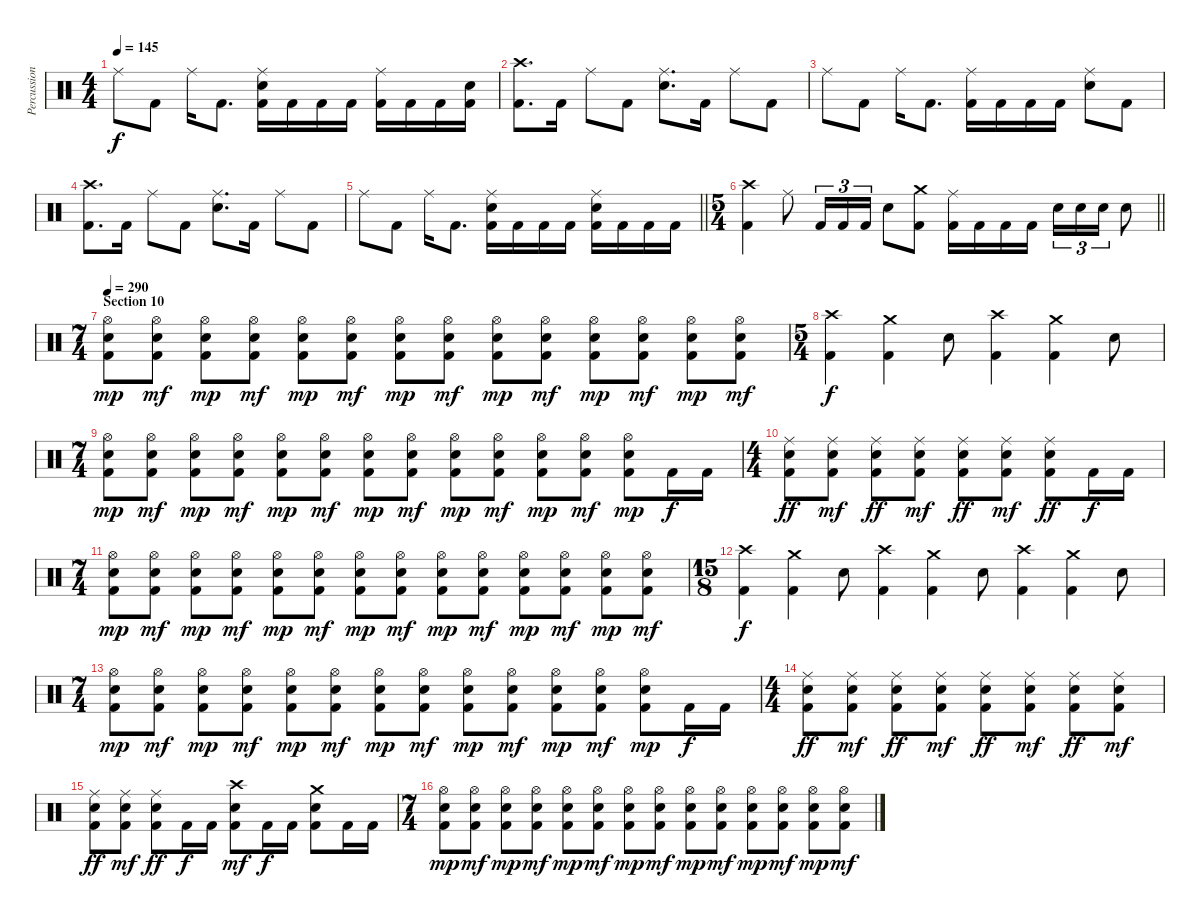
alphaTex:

\track ("Percussion" "Percussion") {instrument percussion}
\staff {score}
\articulation defaults
\ts (4 4)
\tempo 145
\clef neutral
\ks c "Ride (middle)".8{dy f} "Kick (hit) 2".8 "Ride (middle)".16 "Kick (hit) 2".8{d}
("Ride (middle)" "Electric Snare (hit)" "Kick (hit) 2").16 "Kick (hit) 2".16 "Kick (hit) 2".16 "Kick (hit) 2".16 ("Ride (middle)" "Kick (hit) 2").16 "Kick (hit) 2".16 "Kick (hit) 2".16 ("Electric Snare (hit)" "Kick (hit) 2").16 |
("Crash high (hit)" "Kick (hit) 2").8{d} "Kick (hit) 2".16 "Ride (middle)".8 "Kick (hit) 2".8 ("Ride (middle)" "Electric Snare (hit)").8{d} "Kick (hit) 2".16 "Ride (middle)".8 "Kick (hit) 2".8 |
"Ride (middle)".8 "Kick (hit) 2".8 "Ride (middle)".16 "Kick (hit) 2".8{d} ("Ride (middle)" "Kick (hit) 2").16 "Kick (hit) 2".16 "Kick (hit) 2".16 "Kick (hit) 2".16 ("Ride (middle)" "Electric Snare (hit)").8 "Kick (hit) 2".8 |
("Crash high (hit)" "Kick (hit) 2").8{d} "Kick (hit) 2".16 "Ride (middle)".8 "Kick (hit) 2".8 ("Ride (middle)" "Electric Snare (hit)").8{d} "Kick (hit) 2".16 "Ride (middle)".8 "Kick (hit) 2".8 |
\barLineRight lightlight "Ride (middle)".8 "Kick (hit) 2".8 "Ride (middle)".16 "Kick (hit) 2".8{d}
("Ride (middle)" "Electric Snare (hit)" "Kick (hit) 2").16 "Kick (hit) 2".16 "Kick (hit) 2".16 "Kick (hit) 2".16 ("Ride (middle)" "Electric Snare (hit)" "Kick (hit) 2").16 "Kick (hit) 2".16 "Kick (hit) 2".16 "Kick (hit) 2".16 |
\ts (5 4)
\section ("" "")
\barLineRight lightlight
("Crash high (hit)" "Kick (hit) 2").4 "Ride (middle)".8 "Kick (hit) 2".16{tu (3 2)} "Kick (hit) 2".16{tu (3 2)} "Kick (hit) 2".16{tu (3 2)} "Electric Snare (hit)".8 ("Crash medium (hit)" "Kick (hit) 2").8 ("Ride (middle)" "Kick (hit) 2").16 "Kick (hit) 2".16 "Kick (hit) 2".16 "Kick (hit) 2".16 "Electric Snare (hit)".16{tu (3 2)} "Electric Snare (hit)".16{tu (3 2)} "Electric Snare (hit)".16{tu (3 2)} "Electric Snare (hit)".8 |
\ts (7 4)
\section ("" "Section 10")
\tempo 290
("Hi-Hat (open)" "Electric Snare (hit)" "Kick (hit) 2").8{dy mp} ("Hi-Hat (open)" "Electric Snare (hit)" "Kick (hit) 2").8{dy mf} ("Hi-Hat (open)" "Electric Snare (hit)" "Kick (hit) 2").8{dy mp} ("Hi-Hat (open)" "Electric Snare (hit)" "Kick (hit) 2").8{dy mf} ("Hi-Hat (open)" "Electric Snare (hit)" "Kick (hit) 2").8{dy mp} ("Hi-Hat (open)" "Electric Snare (hit)" "Kick (hit) 2").8{dy mf} ("Hi-Hat (open)" "Electric Snare (hit)" "Kick (hit) 2").8{dy mp} ("Hi-Hat (open)" "Electric Snare (hit)" "Kick (hit) 2").8{dy mf} ("Hi-Hat (open)" "Electric Snare (hit)" "Kick (hit) 2").8{dy mp} ("Hi-Hat (open)" "Electric Snare (hit)" "Kick (hit) 2").8{dy mf} ("Hi-Hat (open)" "Electric Snare (hit)" "Kick (hit) 2").8{dy mp} ("Hi-Hat (open)" "Electric Snare (hit)" "Kick (hit) 2").8{dy mf} ("Hi-Hat (open)" "Electric Snare (hit)" "Kick (hit) 2").8{dy mp} ("Hi-Hat (open)" "Electric Snare (hit)" "Kick (hit) 2").8{dy mf} |
\ts (5 4)
("Crash high (hit)" "Kick (hit) 2").4{dy f} ("Crash medium (hit)" "Kick (hit) 2").4 "Electric Snare (hit)".8 ("Crash high (hit)" "Kick (hit) 2").4 ("Crash medium (hit)" "Kick (hit) 2").4 "Electric Snare (hit)".8 |
\ts (7 4)
("Hi-Hat (open)" "Electric Snare (hit)" "Kick (hit) 2").8{dy mp} ("Hi-Hat (open)" "Electric Snare (hit)" "Kick (hit) 2").8{dy mf} ("Hi-Hat (open)" "Electric Snare (hit)" "Kick (hit) 2").8{dy mp} ("Hi-Hat (open)" "Electric Snare (hit)" "Kick (hit) 2").8{dy mf} ("Hi-Hat (open)" "Electric Snare (hit)" "Kick (hit) 2").8{dy mp} ("Hi-Hat (open)" "Electric Snare (hit)" "Kick (hit) 2").8{dy mf} ("Hi-Hat (open)" "Electric Snare (hit)" "Kick (hit) 2").8{dy mp} ("Hi-Hat (open)" "Electric Snare (hit)" "Kick (hit) 2").8{dy mf} ("Hi-Hat (open)" "Electric Snare (hit)" "Kick (hit) 2").8{dy mp} ("Hi-Hat (open)" "Electric Snare (hit)" "Kick (hit) 2").8{dy mf} ("Hi-Hat (open)" "Electric Snare (hit)" "Kick (hit) 2").8{dy mp} ("Hi-Hat (open)" "Electric Snare (hit)" "Kick (hit) 2").8{dy mf} ("Hi-Hat (open)" "Electric Snare (hit)" "Kick (hit) 2").8{dy mp} "Kick (hit) 2".16{dy f} "Kick (hit) 2".16 |
\ts (4 4)
("Ride (middle)" "Electric Snare (hit)" "Kick (hit) 2").8{dy ff} ("Ride (middle)" "Electric Snare (hit)" "Kick (hit) 2").8{dy mf} ("Ride (middle)" "Electric Snare (hit)" "Kick (hit) 2").8{dy ff} ("Ride (middle)" "Electric Snare (hit)" "Kick (hit) 2").8{dy mf} ("Ride (middle)" "Electric Snare (hit)" "Kick (hit) 2").8{dy ff} ("Ride (middle)" "Electric Snare (hit)" "Kick (hit) 2").8{dy mf} ("Ride (middle)" "Electric Snare (hit)" "Kick (hit) 2").8{dy ff} "Kick (hit) 2".16{dy f} "Kick (hit) 2".16 |
\ts (7 4)
("Hi-Hat (open)" "Electric Snare (hit)" "Kick (hit) 2").8{dy mp} ("Hi-Hat (open)" "Electric Snare (hit)" "Kick (hit) 2").8{dy mf} ("Hi-Hat (open)" "Electric Snare (hit)" "Kick (hit) 2").8{dy mp} ("Hi-Hat (open)" "Electric Snare (hit)" "Kick (hit) 2").8{dy mf} ("Hi-Hat (open)" "Electric Snare (hit)" "Kick (hit) 2").8{dy mp} ("Hi-Hat (open)" "Electric Snare (hit)" "Kick (hit) 2").8{dy mf} ("Hi-Hat (open)" "Electric Snare (hit)" "Kick (hit) 2").8{dy mp} ("Hi-Hat (open)" "Electric Snare (hit)" "Kick (hit) 2").8{dy mf} ("Hi-Hat (open)" "Electric Snare (hit)" "Kick (hit) 2").8{dy mp} ("Hi-Hat (open)" "Electric Snare (hit)" "Kick (hit) 2").8{dy mf} ("Hi-Hat (open)" "Electric Snare (hit)" "Kick (hit) 2").8{dy mp} ("Hi-Hat (open)" "Electric Snare (hit)" "Kick (hit) 2").8{dy mf} ("Hi-Hat (open)" "Electric Snare (hit)" "Kick (hit) 2").8{dy mp} ("Hi-Hat (open)" "Electric Snare (hit)" "Kick (hit) 2").8{dy mf} |
\ts (15 8)
("Crash high (hit)" "Kick (hit) 2").4{dy f} ("Crash medium (hit)" "Kick (hit) 2").4 "Electric Snare (hit)".8 ("Crash high (hit)" "Kick (hit) 2").4 ("Crash medium (hit)" "Kick (hit) 2").4 "Electric Snare (hit)".8 ("Crash high (hit)" "Kick (hit) 2").4 ("Crash medium (hit)" "Kick (hit) 2").4 "Electric Snare (hit)".8 |
\ts (7 4)
("Hi-Hat (open)" "Electric Snare (hit)" "Kick (hit) 2").8{dy mp} ("Hi-Hat (open)" "Electric Snare (hit)" "Kick (hit) 2").8{dy mf} ("Hi-Hat (open)" "Electric Snare (hit)" "Kick (hit) 2").8{dy mp} ("Hi-Hat (open)" "Electric Snare (hit)" "Kick (hit) 2").8{dy mf} ("Hi-Hat (open)" "Electric Snare (hit)" "Kick (hit) 2").8{dy mp} ("Hi-Hat (open)" "Electric Snare (hit)" "Kick (hit) 2").8{dy mf} ("Hi-Hat (open)" "Electric Snare (hit)" "Kick (hit) 2").8{dy mp} ("Hi-Hat (open)" "Electric Snare (hit)" "Kick (hit) 2").8{dy mf} ("Hi-Hat (open)" "Electric Snare (hit)" "Kick (hit) 2").8{dy mp} ("Hi-Hat (open)" "Electric Snare (hit)" "Kick (hit) 2").8{dy mf} ("Hi-Hat (open)" "Electric Snare (hit)" "Kick (hit) 2").8{dy mp} ("Hi-Hat (open)" "Electric Snare (hit)" "Kick (hit) 2").8{dy mf} ("Hi-Hat (open)" "Electric Snare (hit)" "Kick (hit) 2").8{dy mp} "Kick (hit) 2".16{dy f} "Kick (hit) 2".16 |
\ts (4 4)
("Ride (middle)" "Electric Snare (hit)" "Kick (hit) 2").8{dy ff} ("Ride (middle)" "Electric Snare (hit)" "Kick (hit) 2").8{dy mf} ("Ride (middle)" "Electric Snare (hit)" "Kick (hit) 2").8{dy ff} ("Ride (middle)" "Electric Snare (hit)" "Kick (hit) 2").8{dy mf} ("Ride (middle)" "Electric Snare (hit)" "Kick (hit) 2").8{dy ff} ("Ride (middle)" "Electric Snare (hit)" "Kick (hit) 2").8{dy mf} ("Ride (middle)" "Electric Snare (hit)" "Kick (hit) 2").8{dy ff} ("Ride (middle)" "Electric Snare (hit)" "Kick (hit) 2").8{dy mf} |
("Ride (middle)" "Electric Snare (hit)" "Kick (hit) 2").8{dy ff} ("Ride (middle)" "Electric Snare (hit)" "Kick (hit) 2").8{dy mf} ("Ride (middle)" "Electric Snare (hit)" "Kick (hit) 2").8{dy ff} "Kick (hit) 2".16{dy f} "Kick (hit) 2".16 ("Crash high (hit)" "Electric Snare (hit)" "Kick (hit) 2").8{dy mf} "Kick (hit) 2".16{dy f} "Kick (hit) 2".16 ("Crash medium (hit)" "Electric Snare (hit)" "Kick (hit) 2").8 "Kick (hit) 2".16 "Kick (hit) 2".16 |
\ts (7 4)
("Hi-Hat (open)" "Electric Snare (hit)" "Kick (hit) 2").8{dy mp} ("Hi-Hat (open)" "Electric Snare (hit)" "Kick (hit) 2").8{dy mf} ("Hi-Hat (open)" "Electric Snare (hit)" "Kick (hit) 2").8{dy mp} ("Hi-Hat (open)" "Electric Snare (hit)" "Kick (hit) 2").8{dy mf} ("Hi-Hat (open)" "Electric Snare (hit)" "Kick (hit) 2").8{dy mp} ("Hi-Hat (open)" "Electric Snare (hit)" "Kick (hit) 2").8{dy mf} ("Hi-Hat (open)" "Electric Snare (hit)" "Kick (hit) 2").8{dy mp} ("Hi-Hat (open)" "Electric Snare (hit)" "Kick (hit) 2").8{dy mf} ("Hi-Hat (open)" "Electric Snare (hit)" "Kick (hit) 2").8{dy mp} ("Hi-Hat (open)" "Electric Snare (hit)" "Kick (hit) 2").8{dy mf} ("Hi-Hat (open)" "Electric Snare (hit)" "Kick (hit) 2").8{dy mp} ("Hi-Hat (open)" "Electric Snare (hit)" "Kick (hit) 2").8{dy mf} ("Hi-Hat (open)" "Electric Snare (hit)" "Kick (hit) 2").8{dy mp} ("Hi-Hat (open)" "Electric Snare (hit)" "Kick (hit) 2").8{dy mf}
